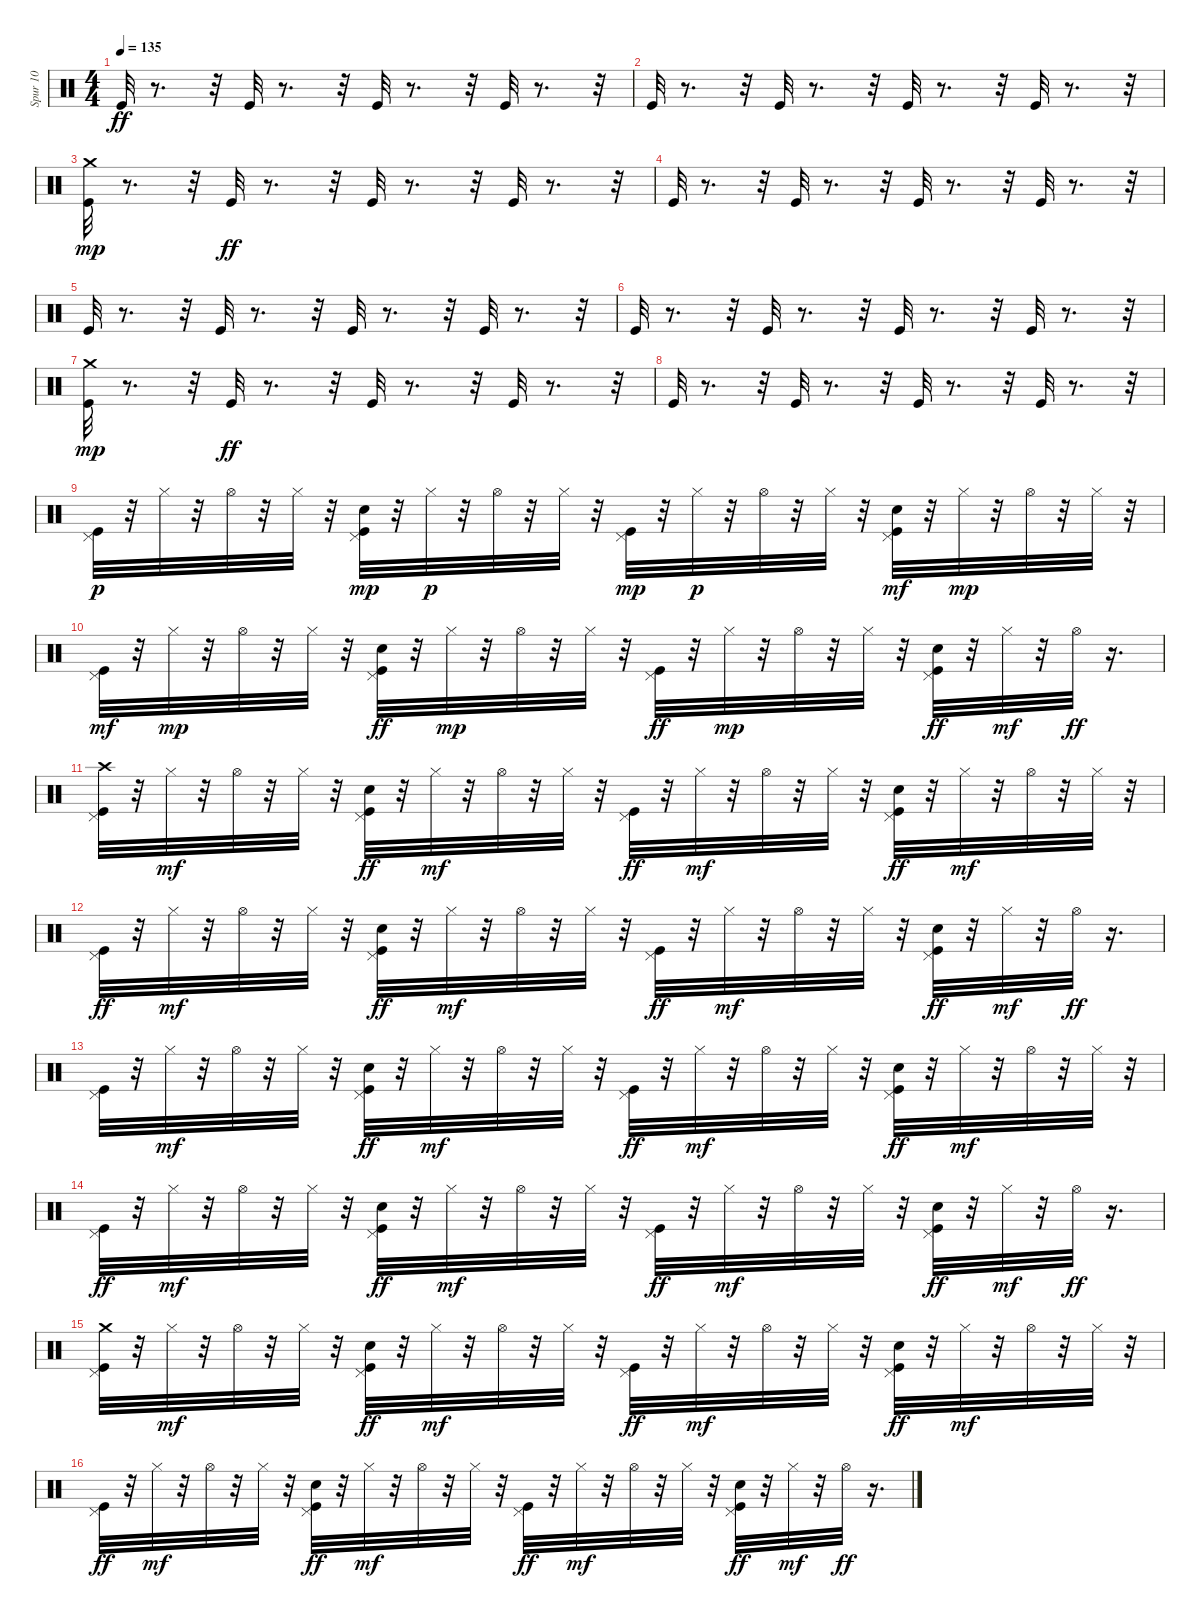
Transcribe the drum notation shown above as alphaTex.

\track ("Spur 10" "Spur 10") {instrument percussion}
\staff {score}
\articulation defaults
\ts (4 4)
\tempo 135
\clef neutral
\ks c "Kick (hit)".32{dy ff}
r.8{d} r.32 "Kick (hit)".32 r.8{d} r.32 "Kick (hit)".32 r.8{d} r.32 "Kick (hit)".32 r.8{d} r.32 |
"Kick (hit)".32 r.8{d} r.32 "Kick (hit)".32 r.8{d} r.32 "Kick (hit)".32 r.8{d} r.32 "Kick (hit)".32 r.8{d} r.32 |
("Kick (hit)" "Crash medium (hit)").32{dy mp} r.8{d} r.32 "Kick (hit)".32{dy ff} r.8{d} r.32 "Kick (hit)".32 r.8{d} r.32 "Kick (hit)".32 r.8{d} r.32 |
"Kick (hit)".32 r.8{d} r.32 "Kick (hit)".32 r.8{d} r.32 "Kick (hit)".32 r.8{d} r.32 "Kick (hit)".32 r.8{d} r.32 |
"Kick (hit)".32 r.8{d} r.32 "Kick (hit)".32 r.8{d} r.32 "Kick (hit)".32 r.8{d} r.32 "Kick (hit)".32 r.8{d} r.32 |
"Kick (hit)".32 r.8{d} r.32 "Kick (hit)".32 r.8{d} r.32 "Kick (hit)".32 r.8{d} r.32 "Kick (hit)".32 r.8{d} r.32 |
("Kick (hit)" "Crash medium (hit)").32{dy mp} r.8{d} r.32 "Kick (hit)".32{dy ff} r.8{d} r.32 "Kick (hit)".32 r.8{d} r.32 "Kick (hit)".32 r.8{d} r.32 |
"Kick (hit)".32 r.8{d} r.32 "Kick (hit)".32 r.8{d} r.32 "Kick (hit)".32 r.8{d} r.32 "Kick (hit)".32 r.8{d} r.32 |
("Kick (hit)" "Pedal Hi-Hat (hit)").32{dy p} r.32 "Hi-Hat (closed)".32 r.32 "Hi-Hat (open)".32 r.32 "Hi-Hat (closed)".32 r.32 ("Kick (hit)" "Hand Clap (hit)" "Pedal Hi-Hat (hit)").32{dy mp} r.32 "Hi-Hat (closed)".32{dy p} r.32 "Hi-Hat (open)".32 r.32 "Hi-Hat (closed)".32 r.32 ("Kick (hit)" "Pedal Hi-Hat (hit)").32{dy mp} r.32 "Hi-Hat (closed)".32{dy p} r.32 "Hi-Hat (open)".32 r.32 "Hi-Hat (closed)".32 r.32 ("Kick (hit)" "Hand Clap (hit)" "Pedal Hi-Hat (hit)").32{dy mf} r.32 "Hi-Hat (closed)".32{dy mp} r.32 "Hi-Hat (open)".32 r.32 "Hi-Hat (closed)".32 r.32 |
("Kick (hit)" "Pedal Hi-Hat (hit)").32{dy mf} r.32 "Hi-Hat (closed)".32{dy mp} r.32 "Hi-Hat (open)".32 r.32 "Hi-Hat (closed)".32 r.32 ("Kick (hit)" "Hand Clap (hit)" "Pedal Hi-Hat (hit)").32{dy ff} r.32 "Hi-Hat (closed)".32{dy mp} r.32 "Hi-Hat (open)".32 r.32 "Hi-Hat (closed)".32 r.32 ("Kick (hit)" "Pedal Hi-Hat (hit)").32{dy ff} r.32 "Hi-Hat (closed)".32{dy mp} r.32 "Hi-Hat (open)".32 r.32 "Hi-Hat (closed)".32 r.32 ("Kick (hit)" "Hand Clap (hit)" "Pedal Hi-Hat (hit)").32{dy ff} r.32 "Hi-Hat (closed)".32{dy mf} r.32 "Hi-Hat (open)".32{dy ff} r.16{d} |
("Crash high (hit)" "Kick (hit)" "Pedal Hi-Hat (hit)").32 r.32 "Hi-Hat (closed)".32{dy mf} r.32 "Hi-Hat (open)".32 r.32 "Hi-Hat (closed)".32 r.32 ("Kick (hit)" "Hand Clap (hit)" "Pedal Hi-Hat (hit)").32{dy ff} r.32 "Hi-Hat (closed)".32{dy mf} r.32 "Hi-Hat (open)".32 r.32 "Hi-Hat (closed)".32 r.32 ("Kick (hit)" "Pedal Hi-Hat (hit)").32{dy ff} r.32 "Hi-Hat (closed)".32{dy mf} r.32 "Hi-Hat (open)".32 r.32 "Hi-Hat (closed)".32 r.32 ("Kick (hit)" "Hand Clap (hit)" "Pedal Hi-Hat (hit)").32{dy ff} r.32 "Hi-Hat (closed)".32{dy mf} r.32 "Hi-Hat (open)".32 r.32 "Hi-Hat (closed)".32 r.32 |
("Kick (hit)" "Pedal Hi-Hat (hit)").32{dy ff} r.32 "Hi-Hat (closed)".32{dy mf} r.32 "Hi-Hat (open)".32 r.32 "Hi-Hat (closed)".32 r.32 ("Kick (hit)" "Hand Clap (hit)" "Pedal Hi-Hat (hit)").32{dy ff} r.32 "Hi-Hat (closed)".32{dy mf} r.32 "Hi-Hat (open)".32 r.32 "Hi-Hat (closed)".32 r.32 ("Kick (hit)" "Pedal Hi-Hat (hit)").32{dy ff} r.32 "Hi-Hat (closed)".32{dy mf} r.32 "Hi-Hat (open)".32 r.32 "Hi-Hat (closed)".32 r.32 ("Kick (hit)" "Hand Clap (hit)" "Pedal Hi-Hat (hit)").32{dy ff} r.32 "Hi-Hat (closed)".32{dy mf} r.32 "Hi-Hat (open)".32{dy ff} r.16{d} |
("Kick (hit)" "Pedal Hi-Hat (hit)").32 r.32 "Hi-Hat (closed)".32{dy mf} r.32 "Hi-Hat (open)".32 r.32 "Hi-Hat (closed)".32 r.32 ("Kick (hit)" "Hand Clap (hit)" "Pedal Hi-Hat (hit)").32{dy ff} r.32 "Hi-Hat (closed)".32{dy mf} r.32 "Hi-Hat (open)".32 r.32 "Hi-Hat (closed)".32 r.32 ("Kick (hit)" "Pedal Hi-Hat (hit)").32{dy ff} r.32 "Hi-Hat (closed)".32{dy mf} r.32 "Hi-Hat (open)".32 r.32 "Hi-Hat (closed)".32 r.32 ("Kick (hit)" "Hand Clap (hit)" "Pedal Hi-Hat (hit)").32{dy ff} r.32 "Hi-Hat (closed)".32{dy mf} r.32 "Hi-Hat (open)".32 r.32 "Hi-Hat (closed)".32 r.32 |
("Kick (hit)" "Pedal Hi-Hat (hit)").32{dy ff} r.32 "Hi-Hat (closed)".32{dy mf} r.32 "Hi-Hat (open)".32 r.32 "Hi-Hat (closed)".32 r.32 ("Kick (hit)" "Hand Clap (hit)" "Pedal Hi-Hat (hit)").32{dy ff} r.32 "Hi-Hat (closed)".32{dy mf} r.32 "Hi-Hat (open)".32 r.32 "Hi-Hat (closed)".32 r.32 ("Kick (hit)" "Pedal Hi-Hat (hit)").32{dy ff} r.32 "Hi-Hat (closed)".32{dy mf} r.32 "Hi-Hat (open)".32 r.32 "Hi-Hat (closed)".32 r.32 ("Kick (hit)" "Hand Clap (hit)" "Pedal Hi-Hat (hit)").32{dy ff} r.32 "Hi-Hat (closed)".32{dy mf} r.32 "Hi-Hat (open)".32{dy ff} r.16{d} |
("Crash medium (hit)" "Kick (hit)" "Pedal Hi-Hat (hit)").32 r.32 "Hi-Hat (closed)".32{dy mf} r.32 "Hi-Hat (open)".32 r.32 "Hi-Hat (closed)".32 r.32 ("Kick (hit)" "Hand Clap (hit)" "Pedal Hi-Hat (hit)").32{dy ff} r.32 "Hi-Hat (closed)".32{dy mf} r.32 "Hi-Hat (open)".32 r.32 "Hi-Hat (closed)".32 r.32 ("Kick (hit)" "Pedal Hi-Hat (hit)").32{dy ff} r.32 "Hi-Hat (closed)".32{dy mf} r.32 "Hi-Hat (open)".32 r.32 "Hi-Hat (closed)".32 r.32 ("Kick (hit)" "Hand Clap (hit)" "Pedal Hi-Hat (hit)").32{dy ff} r.32 "Hi-Hat (closed)".32{dy mf} r.32 "Hi-Hat (open)".32 r.32 "Hi-Hat (closed)".32 r.32 |
("Kick (hit)" "Pedal Hi-Hat (hit)").32{dy ff} r.32 "Hi-Hat (closed)".32{dy mf} r.32 "Hi-Hat (open)".32 r.32 "Hi-Hat (closed)".32 r.32 ("Kick (hit)" "Hand Clap (hit)" "Pedal Hi-Hat (hit)").32{dy ff} r.32 "Hi-Hat (closed)".32{dy mf} r.32 "Hi-Hat (open)".32 r.32 "Hi-Hat (closed)".32 r.32 ("Kick (hit)" "Pedal Hi-Hat (hit)").32{dy ff} r.32 "Hi-Hat (closed)".32{dy mf} r.32 "Hi-Hat (open)".32 r.32 "Hi-Hat (closed)".32 r.32 ("Kick (hit)" "Hand Clap (hit)" "Pedal Hi-Hat (hit)").32{dy ff} r.32 "Hi-Hat (closed)".32{dy mf} r.32 "Hi-Hat (open)".32{dy ff} r.16{d}
